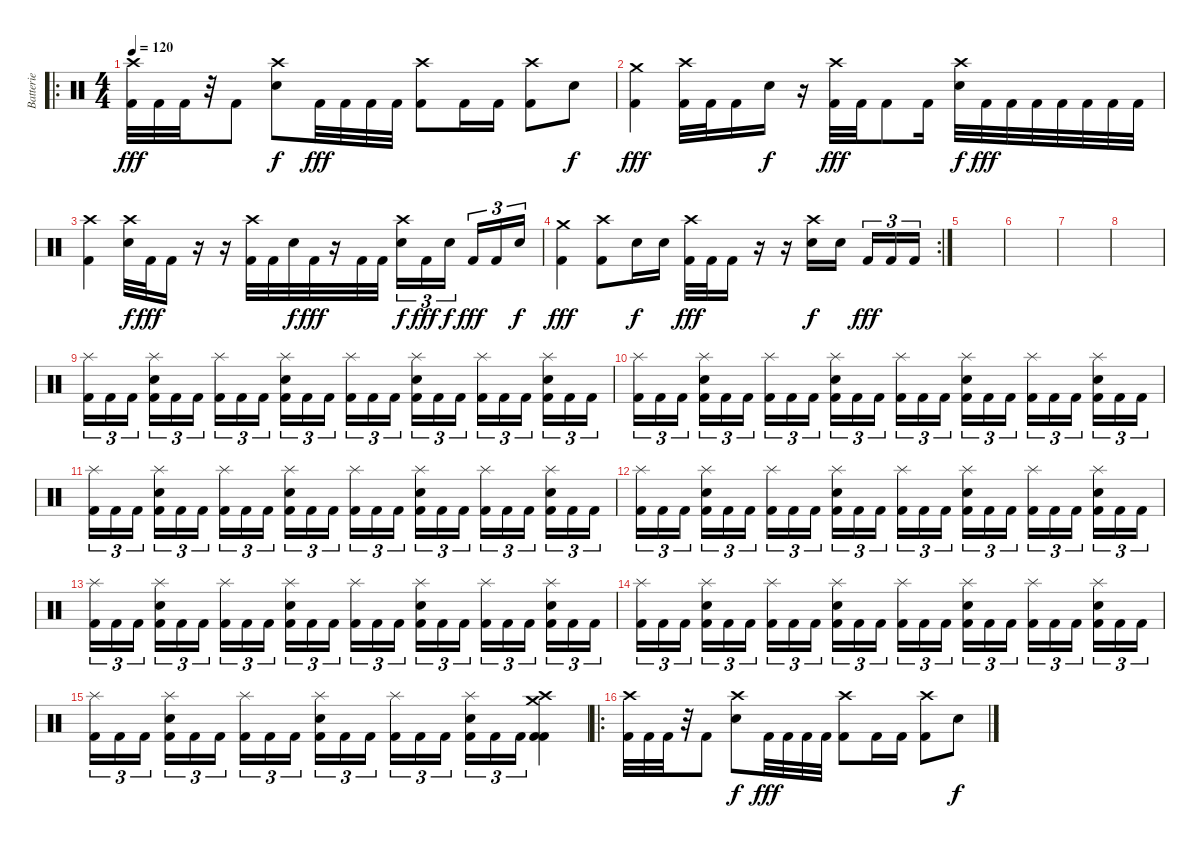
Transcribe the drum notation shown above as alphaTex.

\track ("Batterie" "Batterie") {instrument percussion}
\staff {score}
\articulation defaults
\ro
\ts (4 4)
\tempo 120
\clef neutral
\ks c
("Crash high (hit)" "Kick (hit) 2").32{dy fff} "Kick (hit) 2".32 "Kick (hit) 2".32 r.32 "Kick (hit) 2".8 ("Crash high (hit)" "Electric Snare (hit)").8{dy f} "Kick (hit) 2".32{dy fff} "Kick (hit) 2".32 "Kick (hit) 2".32 "Kick (hit) 2".32 ("Crash high (hit)" "Kick (hit) 2").8 "Kick (hit) 2".16 "Kick (hit) 2".16 ("Crash high (hit)" "Kick (hit) 2").8 "Electric Snare (hit)".8{dy f} |
("Crash medium (hit)" "Kick (hit) 2").4{dy fff} ("Crash high (hit)" "Kick (hit) 2").32 "Kick (hit) 2".32 "Kick (hit) 2".16 "Electric Snare (hit)".16{dy f} r.16 ("Crash high (hit)" "Kick (hit) 2").32{dy fff} "Kick (hit) 2".32 "Kick (hit) 2".8 "Kick (hit) 2".16 ("Crash high (hit)" "Electric Snare (hit)").32{dy f} "Kick (hit) 2".32{dy fff} "Kick (hit) 2".32 "Kick (hit) 2".32 "Kick (hit) 2".32 "Kick (hit) 2".32 "Kick (hit) 2".32 "Kick (hit) 2".32 |
("Crash high (hit)" "Kick (hit) 2").4 ("Crash high (hit)" "Electric Snare (hit)").32{dy f} "Kick (hit) 2".32{dy fff} "Kick (hit) 2".16 r.16 r.16 ("Crash high (hit)" "Kick (hit) 2").32 "Kick (hit) 2".32 "Electric Snare (hit)".32{dy f} "Kick (hit) 2".32{dy fff} r.16 "Kick (hit) 2".32 "Kick (hit) 2".32 ("Crash high (hit)" "Electric Snare (hit)").16{tu (3 2) dy f} "Kick (hit) 2".16{tu (3 2) dy fff} "Electric Snare (hit)".16{tu (3 2) dy f beam splitsecondary} "Kick (hit) 2".16{tu (3 2) dy fff} "Kick (hit) 2".16{tu (3 2)} "Electric Snare (hit)".16{tu (3 2) dy f} |
\rc 2
("Crash medium (hit)" "Kick (hit) 2").4{dy fff} ("Crash high (hit)" "Kick (hit) 2").8 "Electric Snare (hit)".16{dy f} "Electric Snare (hit)".16 ("Crash high (hit)" "Kick (hit) 2").32{dy fff} "Kick (hit) 2".32 "Kick (hit) 2".16 r.16 r.16 ("Crash high (hit)" "Electric Snare (hit)").16{dy f} "Electric Snare (hit)".16{beam splitsecondary} "Kick (hit) 2".16{tu (3 2) dy fff} "Kick (hit) 2".16{tu (3 2)} "Kick (hit) 2".16{tu (3 2)} |
|
|
|
|
("Splash (hit)" "Kick (hit) 2").16{tu (3 2)} "Kick (hit) 2".16{tu (3 2)} "Kick (hit) 2".16{tu (3 2) beam splitsecondary} ("Splash (hit)" "Electric Snare (hit)" "Kick (hit) 2").16{tu (3 2)} "Kick (hit) 2".16{tu (3 2)} "Kick (hit) 2".16{tu (3 2)} ("Splash (hit)" "Kick (hit) 2").16{tu (3 2)} "Kick (hit) 2".16{tu (3 2)} "Kick (hit) 2".16{tu (3 2) beam splitsecondary} ("Splash (hit)" "Electric Snare (hit)" "Kick (hit) 2").16{tu (3 2)} "Kick (hit) 2".16{tu (3 2)} "Kick (hit) 2".16{tu (3 2)} ("Splash (hit)" "Kick (hit) 2").16{tu (3 2)} "Kick (hit) 2".16{tu (3 2)} "Kick (hit) 2".16{tu (3 2) beam splitsecondary} ("Splash (hit)" "Electric Snare (hit)" "Kick (hit) 2").16{tu (3 2)} "Kick (hit) 2".16{tu (3 2)} "Kick (hit) 2".16{tu (3 2)} ("Splash (hit)" "Kick (hit) 2").16{tu (3 2)} "Kick (hit) 2".16{tu (3 2)} "Kick (hit) 2".16{tu (3 2) beam splitsecondary} ("Splash (hit)" "Electric Snare (hit)" "Kick (hit) 2").16{tu (3 2)} "Kick (hit) 2".16{tu (3 2)} "Kick (hit) 2".16{tu (3 2)} |
("Splash (hit)" "Kick (hit) 2").16{tu (3 2)} "Kick (hit) 2".16{tu (3 2)} "Kick (hit) 2".16{tu (3 2) beam splitsecondary} ("Splash (hit)" "Electric Snare (hit)" "Kick (hit) 2").16{tu (3 2)} "Kick (hit) 2".16{tu (3 2)} "Kick (hit) 2".16{tu (3 2)} ("Splash (hit)" "Kick (hit) 2").16{tu (3 2)} "Kick (hit) 2".16{tu (3 2)} "Kick (hit) 2".16{tu (3 2) beam splitsecondary} ("Splash (hit)" "Electric Snare (hit)" "Kick (hit) 2").16{tu (3 2)} "Kick (hit) 2".16{tu (3 2)} "Kick (hit) 2".16{tu (3 2)} ("Splash (hit)" "Kick (hit) 2").16{tu (3 2)} "Kick (hit) 2".16{tu (3 2)} "Kick (hit) 2".16{tu (3 2) beam splitsecondary} ("Splash (hit)" "Electric Snare (hit)" "Kick (hit) 2").16{tu (3 2)} "Kick (hit) 2".16{tu (3 2)} "Kick (hit) 2".16{tu (3 2)} ("Splash (hit)" "Kick (hit) 2").16{tu (3 2)} "Kick (hit) 2".16{tu (3 2)} "Kick (hit) 2".16{tu (3 2) beam splitsecondary} ("Splash (hit)" "Electric Snare (hit)" "Kick (hit) 2").16{tu (3 2)} "Kick (hit) 2".16{tu (3 2)} "Kick (hit) 2".16{tu (3 2)} |
("Splash (hit)" "Kick (hit) 2").16{tu (3 2)} "Kick (hit) 2".16{tu (3 2)} "Kick (hit) 2".16{tu (3 2) beam splitsecondary} ("Splash (hit)" "Electric Snare (hit)" "Kick (hit) 2").16{tu (3 2)} "Kick (hit) 2".16{tu (3 2)} "Kick (hit) 2".16{tu (3 2)} ("Splash (hit)" "Kick (hit) 2").16{tu (3 2)} "Kick (hit) 2".16{tu (3 2)} "Kick (hit) 2".16{tu (3 2) beam splitsecondary} ("Splash (hit)" "Electric Snare (hit)" "Kick (hit) 2").16{tu (3 2)} "Kick (hit) 2".16{tu (3 2)} "Kick (hit) 2".16{tu (3 2)} ("Splash (hit)" "Kick (hit) 2").16{tu (3 2)} "Kick (hit) 2".16{tu (3 2)} "Kick (hit) 2".16{tu (3 2) beam splitsecondary} ("Splash (hit)" "Electric Snare (hit)" "Kick (hit) 2").16{tu (3 2)} "Kick (hit) 2".16{tu (3 2)} "Kick (hit) 2".16{tu (3 2)} ("Splash (hit)" "Kick (hit) 2").16{tu (3 2)} "Kick (hit) 2".16{tu (3 2)} "Kick (hit) 2".16{tu (3 2) beam splitsecondary} ("Splash (hit)" "Electric Snare (hit)" "Kick (hit) 2").16{tu (3 2)} "Kick (hit) 2".16{tu (3 2)} "Kick (hit) 2".16{tu (3 2)} |
("Splash (hit)" "Kick (hit) 2").16{tu (3 2)} "Kick (hit) 2".16{tu (3 2)} "Kick (hit) 2".16{tu (3 2) beam splitsecondary} ("Splash (hit)" "Electric Snare (hit)" "Kick (hit) 2").16{tu (3 2)} "Kick (hit) 2".16{tu (3 2)} "Kick (hit) 2".16{tu (3 2)} ("Splash (hit)" "Kick (hit) 2").16{tu (3 2)} "Kick (hit) 2".16{tu (3 2)} "Kick (hit) 2".16{tu (3 2) beam splitsecondary} ("Splash (hit)" "Electric Snare (hit)" "Kick (hit) 2").16{tu (3 2)} "Kick (hit) 2".16{tu (3 2)} "Kick (hit) 2".16{tu (3 2)} ("Splash (hit)" "Kick (hit) 2").16{tu (3 2)} "Kick (hit) 2".16{tu (3 2)} "Kick (hit) 2".16{tu (3 2) beam splitsecondary} ("Splash (hit)" "Electric Snare (hit)" "Kick (hit) 2").16{tu (3 2)} "Kick (hit) 2".16{tu (3 2)} "Kick (hit) 2".16{tu (3 2)} ("Splash (hit)" "Kick (hit) 2").16{tu (3 2)} "Kick (hit) 2".16{tu (3 2)} "Kick (hit) 2".16{tu (3 2) beam splitsecondary} ("Splash (hit)" "Electric Snare (hit)" "Kick (hit) 2").16{tu (3 2)} "Kick (hit) 2".16{tu (3 2)} "Kick (hit) 2".16{tu (3 2)} |
("Splash (hit)" "Kick (hit) 2").16{tu (3 2)} "Kick (hit) 2".16{tu (3 2)} "Kick (hit) 2".16{tu (3 2) beam splitsecondary} ("Splash (hit)" "Electric Snare (hit)" "Kick (hit) 2").16{tu (3 2)} "Kick (hit) 2".16{tu (3 2)} "Kick (hit) 2".16{tu (3 2)} ("Splash (hit)" "Kick (hit) 2").16{tu (3 2)} "Kick (hit) 2".16{tu (3 2)} "Kick (hit) 2".16{tu (3 2) beam splitsecondary} ("Splash (hit)" "Electric Snare (hit)" "Kick (hit) 2").16{tu (3 2)} "Kick (hit) 2".16{tu (3 2)} "Kick (hit) 2".16{tu (3 2)} ("Splash (hit)" "Kick (hit) 2").16{tu (3 2)} "Kick (hit) 2".16{tu (3 2)} "Kick (hit) 2".16{tu (3 2) beam splitsecondary} ("Splash (hit)" "Electric Snare (hit)" "Kick (hit) 2").16{tu (3 2)} "Kick (hit) 2".16{tu (3 2)} "Kick (hit) 2".16{tu (3 2)} ("Splash (hit)" "Kick (hit) 2").16{tu (3 2)} "Kick (hit) 2".16{tu (3 2)} "Kick (hit) 2".16{tu (3 2) beam splitsecondary} ("Splash (hit)" "Electric Snare (hit)" "Kick (hit) 2").16{tu (3 2)} "Kick (hit) 2".16{tu (3 2)} "Kick (hit) 2".16{tu (3 2)} |
("Splash (hit)" "Kick (hit) 2").16{tu (3 2)} "Kick (hit) 2".16{tu (3 2)} "Kick (hit) 2".16{tu (3 2) beam splitsecondary} ("Splash (hit)" "Electric Snare (hit)" "Kick (hit) 2").16{tu (3 2)} "Kick (hit) 2".16{tu (3 2)} "Kick (hit) 2".16{tu (3 2)} ("Splash (hit)" "Kick (hit) 2").16{tu (3 2)} "Kick (hit) 2".16{tu (3 2)} "Kick (hit) 2".16{tu (3 2) beam splitsecondary} ("Splash (hit)" "Electric Snare (hit)" "Kick (hit) 2").16{tu (3 2)} "Kick (hit) 2".16{tu (3 2)} "Kick (hit) 2".16{tu (3 2)} ("Splash (hit)" "Kick (hit) 2").16{tu (3 2)} "Kick (hit) 2".16{tu (3 2)} "Kick (hit) 2".16{tu (3 2) beam splitsecondary} ("Splash (hit)" "Electric Snare (hit)" "Kick (hit) 2").16{tu (3 2)} "Kick (hit) 2".16{tu (3 2)} "Kick (hit) 2".16{tu (3 2)} ("Splash (hit)" "Kick (hit) 2").16{tu (3 2)} "Kick (hit) 2".16{tu (3 2)} "Kick (hit) 2".16{tu (3 2) beam splitsecondary} ("Splash (hit)" "Electric Snare (hit)" "Kick (hit) 2").16{tu (3 2)} "Kick (hit) 2".16{tu (3 2)} "Kick (hit) 2".16{tu (3 2)} |
("Splash (hit)" "Kick (hit) 2").16{tu (3 2)} "Kick (hit) 2".16{tu (3 2)} "Kick (hit) 2".16{tu (3 2) beam splitsecondary} ("Splash (hit)" "Electric Snare (hit)" "Kick (hit) 2").16{tu (3 2)} "Kick (hit) 2".16{tu (3 2)} "Kick (hit) 2".16{tu (3 2)} ("Splash (hit)" "Kick (hit) 2").16{tu (3 2)} "Kick (hit) 2".16{tu (3 2)} "Kick (hit) 2".16{tu (3 2) beam splitsecondary} ("Splash (hit)" "Electric Snare (hit)" "Kick (hit) 2").16{tu (3 2)} "Kick (hit) 2".16{tu (3 2)} "Kick (hit) 2".16{tu (3 2)} ("Splash (hit)" "Kick (hit) 2").16{tu (3 2)} "Kick (hit) 2".16{tu (3 2)} "Kick (hit) 2".16{tu (3 2) beam splitsecondary} ("Splash (hit)" "Electric Snare (hit)" "Kick (hit) 2").16{tu (3 2)} "Kick (hit) 2".16{tu (3 2)} "Kick (hit) 2".16{tu (3 2)} ("Crash high (hit)" "Crash medium (hit)" "Kick (hit) 2" "Kick (hit) 2").4 |
\ro
("Crash high (hit)" "Kick (hit) 2").32 "Kick (hit) 2".32 "Kick (hit) 2".32 r.32 "Kick (hit) 2".8 ("Crash high (hit)" "Electric Snare (hit)").8{dy f} "Kick (hit) 2".32{dy fff} "Kick (hit) 2".32 "Kick (hit) 2".32 "Kick (hit) 2".32 ("Crash high (hit)" "Kick (hit) 2").8 "Kick (hit) 2".16 "Kick (hit) 2".16 ("Crash high (hit)" "Kick (hit) 2").8 "Electric Snare (hit)".8{dy f}
